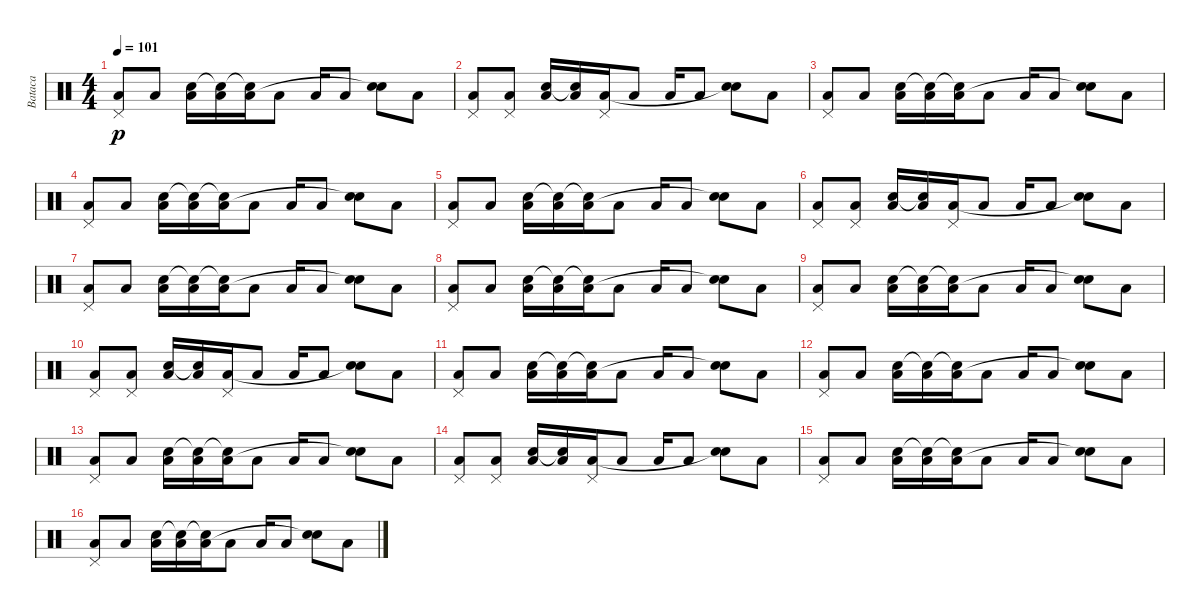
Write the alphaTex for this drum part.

\track ("Bataca" "Bataca") {instrument percussion}
\staff {score}
\articulation defaults
\ts (4 4)
\tempo 101
\clef neutral
\ks c
("Pedal Hi-Hat (hit)" "Low Tom (hit)").8{dy p} "Low Tom (hit)".8 ("Snare (hit) 2" "Low Floor Tom (hit)").16 ("Snare (hit)"{t} "Low Floor Tom (hit)").16 ("Snare (hit)"{t} "Low Tom (hit)").16 "Low Tom (hit)".8 "Low Floor Tom (hit)".16 "Low Floor Tom (hit)".8 ("Snare (hit) 2" "Snare (hit)"{t}).8 "Low Floor Tom (hit)".8 |
("Pedal Hi-Hat (hit)" "Low Tom (hit)").8 ("Pedal Hi-Hat (hit)" "Low Tom (hit)").8 ("Snare (hit) 2" "Low Floor Tom (hit)").16 ("Snare (hit)"{t} "Low Floor Tom (hit)").16 ("Pedal Hi-Hat (hit)" "Low Tom (hit)").16 "Low Tom (hit)".8 "Low Floor Tom (hit)".16 "Low Floor Tom (hit)".8 ("Snare (hit) 2" "Snare (hit)"{t}).8 "Low Floor Tom (hit)".8 |
("Pedal Hi-Hat (hit)" "Low Tom (hit)").8 "Low Tom (hit)".8 ("Snare (hit) 2" "Low Floor Tom (hit)").16 ("Snare (hit)"{t} "Low Floor Tom (hit)").16 ("Snare (hit)"{t} "Low Tom (hit)").16 "Low Tom (hit)".8 "Low Floor Tom (hit)".16 "Low Floor Tom (hit)".8 ("Snare (hit) 2" "Snare (hit)"{t}).8 "Low Floor Tom (hit)".8 |
("Pedal Hi-Hat (hit)" "Low Tom (hit)").8 "Low Tom (hit)".8 ("Snare (hit) 2" "Low Floor Tom (hit)").16 ("Snare (hit)"{t} "Low Floor Tom (hit)").16 ("Snare (hit)"{t} "Low Tom (hit)").16 "Low Tom (hit)".8 "Low Floor Tom (hit)".16 "Low Floor Tom (hit)".8 ("Snare (hit) 2" "Snare (hit)"{t}).8 "Low Floor Tom (hit)".8 |
("Pedal Hi-Hat (hit)" "Low Tom (hit)").8 "Low Tom (hit)".8 ("Snare (hit) 2" "Low Floor Tom (hit)").16 ("Snare (hit)"{t} "Low Floor Tom (hit)").16 ("Snare (hit)"{t} "Low Tom (hit)").16 "Low Tom (hit)".8 "Low Floor Tom (hit)".16 "Low Floor Tom (hit)".8 ("Snare (hit) 2" "Snare (hit)"{t}).8 "Low Floor Tom (hit)".8 |
("Pedal Hi-Hat (hit)" "Low Tom (hit)").8 ("Pedal Hi-Hat (hit)" "Low Tom (hit)").8 ("Snare (hit) 2" "Low Floor Tom (hit)").16 ("Snare (hit)"{t} "Low Floor Tom (hit)").16 ("Pedal Hi-Hat (hit)" "Low Tom (hit)").16 "Low Tom (hit)".8 "Low Floor Tom (hit)".16 "Low Floor Tom (hit)".8 ("Snare (hit) 2" "Snare (hit)"{t}).8 "Low Floor Tom (hit)".8 |
("Pedal Hi-Hat (hit)" "Low Tom (hit)").8 "Low Tom (hit)".8 ("Snare (hit) 2" "Low Floor Tom (hit)").16 ("Snare (hit)"{t} "Low Floor Tom (hit)").16 ("Snare (hit)"{t} "Low Tom (hit)").16 "Low Tom (hit)".8 "Low Floor Tom (hit)".16 "Low Floor Tom (hit)".8 ("Snare (hit) 2" "Snare (hit)"{t}).8 "Low Floor Tom (hit)".8 |
("Pedal Hi-Hat (hit)" "Low Tom (hit)").8 "Low Tom (hit)".8 ("Snare (hit) 2" "Low Floor Tom (hit)").16 ("Snare (hit)"{t} "Low Floor Tom (hit)").16 ("Snare (hit)"{t} "Low Tom (hit)").16 "Low Tom (hit)".8 "Low Floor Tom (hit)".16 "Low Floor Tom (hit)".8 ("Snare (hit) 2" "Snare (hit)"{t}).8 "Low Floor Tom (hit)".8 |
("Pedal Hi-Hat (hit)" "Low Tom (hit)").8 "Low Tom (hit)".8 ("Snare (hit) 2" "Low Floor Tom (hit)").16 ("Snare (hit)"{t} "Low Floor Tom (hit)").16 ("Snare (hit)"{t} "Low Tom (hit)").16 "Low Tom (hit)".8 "Low Floor Tom (hit)".16 "Low Floor Tom (hit)".8 ("Snare (hit) 2" "Snare (hit)"{t}).8 "Low Floor Tom (hit)".8 |
("Pedal Hi-Hat (hit)" "Low Tom (hit)").8 ("Pedal Hi-Hat (hit)" "Low Tom (hit)").8 ("Snare (hit) 2" "Low Floor Tom (hit)").16 ("Snare (hit)"{t} "Low Floor Tom (hit)").16 ("Pedal Hi-Hat (hit)" "Low Tom (hit)").16 "Low Tom (hit)".8 "Low Floor Tom (hit)".16 "Low Floor Tom (hit)".8 ("Snare (hit) 2" "Snare (hit)"{t}).8 "Low Floor Tom (hit)".8 |
("Pedal Hi-Hat (hit)" "Low Tom (hit)").8 "Low Tom (hit)".8 ("Snare (hit) 2" "Low Floor Tom (hit)").16 ("Snare (hit)"{t} "Low Floor Tom (hit)").16 ("Snare (hit)"{t} "Low Tom (hit)").16 "Low Tom (hit)".8 "Low Floor Tom (hit)".16 "Low Floor Tom (hit)".8 ("Snare (hit) 2" "Snare (hit)"{t}).8 "Low Floor Tom (hit)".8 |
("Pedal Hi-Hat (hit)" "Low Tom (hit)").8 "Low Tom (hit)".8 ("Snare (hit) 2" "Low Floor Tom (hit)").16 ("Snare (hit)"{t} "Low Floor Tom (hit)").16 ("Snare (hit)"{t} "Low Tom (hit)").16 "Low Tom (hit)".8 "Low Floor Tom (hit)".16 "Low Floor Tom (hit)".8 ("Snare (hit) 2" "Snare (hit)"{t}).8 "Low Floor Tom (hit)".8 |
("Pedal Hi-Hat (hit)" "Low Tom (hit)").8 "Low Tom (hit)".8 ("Snare (hit) 2" "Low Floor Tom (hit)").16 ("Snare (hit)"{t} "Low Floor Tom (hit)").16 ("Snare (hit)"{t} "Low Tom (hit)").16 "Low Tom (hit)".8 "Low Floor Tom (hit)".16 "Low Floor Tom (hit)".8 ("Snare (hit) 2" "Snare (hit)"{t}).8 "Low Floor Tom (hit)".8 |
("Pedal Hi-Hat (hit)" "Low Tom (hit)").8 ("Pedal Hi-Hat (hit)" "Low Tom (hit)").8 ("Snare (hit) 2" "Low Floor Tom (hit)").16 ("Snare (hit)"{t} "Low Floor Tom (hit)").16 ("Pedal Hi-Hat (hit)" "Low Tom (hit)").16 "Low Tom (hit)".8 "Low Floor Tom (hit)".16 "Low Floor Tom (hit)".8 ("Snare (hit) 2" "Snare (hit)"{t}).8 "Low Floor Tom (hit)".8 |
("Pedal Hi-Hat (hit)" "Low Tom (hit)").8 "Low Tom (hit)".8 ("Snare (hit) 2" "Low Floor Tom (hit)").16 ("Snare (hit)"{t} "Low Floor Tom (hit)").16 ("Snare (hit)"{t} "Low Tom (hit)").16 "Low Tom (hit)".8 "Low Floor Tom (hit)".16 "Low Floor Tom (hit)".8 ("Snare (hit) 2" "Snare (hit)"{t}).8 "Low Floor Tom (hit)".8 |
("Pedal Hi-Hat (hit)" "Low Tom (hit)").8 "Low Tom (hit)".8 ("Snare (hit) 2" "Low Floor Tom (hit)").16 ("Snare (hit)"{t} "Low Floor Tom (hit)").16 ("Snare (hit)"{t} "Low Tom (hit)").16 "Low Tom (hit)".8 "Low Floor Tom (hit)".16 "Low Floor Tom (hit)".8 ("Snare (hit) 2" "Snare (hit)"{t}).8 "Low Floor Tom (hit)".8
